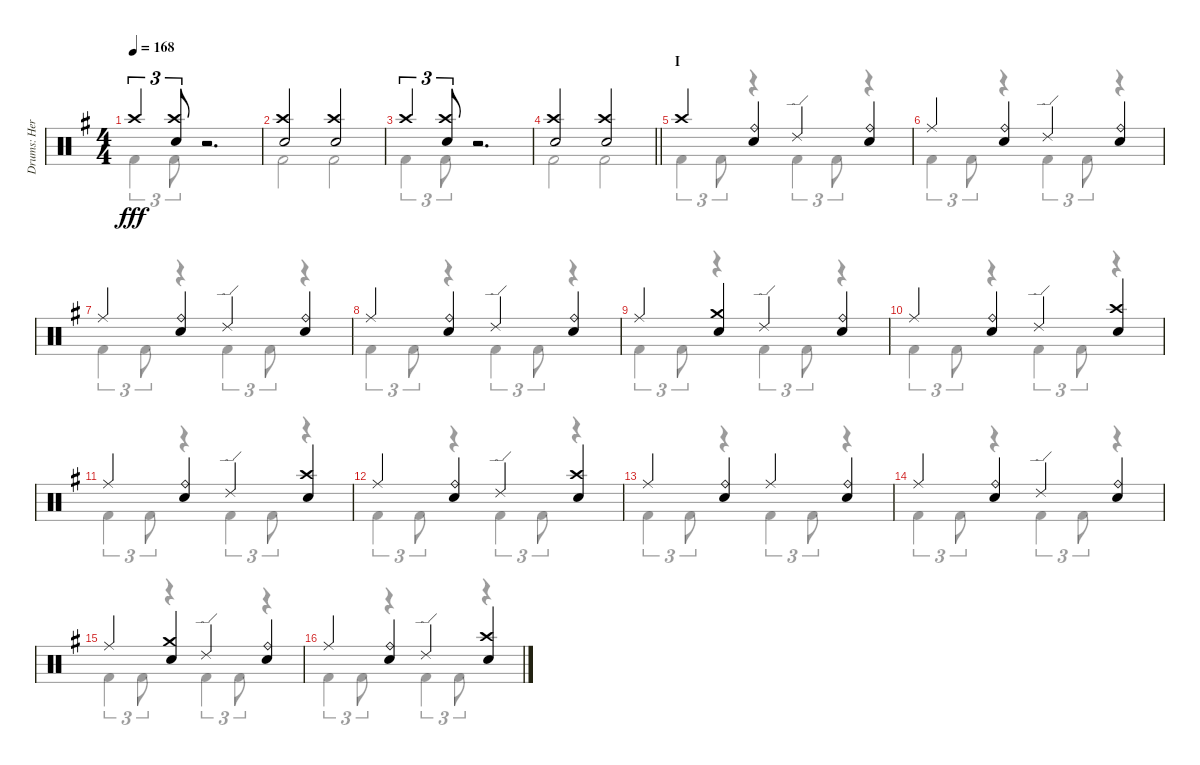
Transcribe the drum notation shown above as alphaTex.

\track ("Drums: Herman" "Drums: Her") {instrument percussion}
\staff {score}
\articulation defaults
\voice
\ts (4 4)
\tempo 168
\clef neutral
\ks g "Crash high (hit)".4{tu (3 2) dy fff}
("Crash high (hit)" "Snare (hit) 2").8{tu (3 2)} r.2{d} |
("Crash high (hit)" "Snare (hit) 2").2 ("Crash high (hit)" "Snare (hit) 2").2 |
"Crash high (hit)".4{tu (3 2)} ("Crash high (hit)" "Snare (hit) 2").8{tu (3 2)} r.2{d} |
\barLineRight lightlight
("Crash high (hit)" "Snare (hit) 2").2 ("Crash high (hit)" "Snare (hit) 2").2 |
\section ("" "I")
"Crash high (hit)".4 ("Ride (bell)" "Snare (hit) 2").4 "Ride (edge) 2".4 ("Ride (bell)" "Snare (hit) 2").4 |
"Ride (middle)".4 ("Ride (bell)" "Snare (hit) 2").4 "Ride (edge) 2".4 ("Ride (bell)" "Snare (hit) 2").4 |
"Ride (middle)".4 ("Ride (bell)" "Snare (hit) 2").4 "Ride (edge) 2".4 ("Ride (bell)" "Snare (hit) 2").4 |
"Ride (middle)".4 ("Ride (bell)" "Snare (hit) 2").4 "Ride (edge) 2".4 ("Ride (bell)" "Snare (hit) 2").4 |
"Ride (middle)".4 ("Crash medium (hit)" "Snare (hit) 2").4 "Ride (edge) 2".4 ("Ride (bell)" "Snare (hit) 2").4 |
"Ride (middle)".4 ("Ride (bell)" "Snare (hit) 2").4 "Ride (edge) 2".4 ("Crash high (hit)" "Snare (hit) 2").4 |
"Ride (middle)".4 ("Ride (bell)" "Snare (hit) 2").4 "Ride (edge) 2".4 ("Crash high (hit)" "Snare (hit) 2").4 |
"Ride (middle)".4 ("Ride (bell)" "Snare (hit) 2").4 "Ride (edge) 2".4 ("Crash high (hit)" "Snare (hit) 2").4 |
"Ride (middle)".4 ("Ride (bell)" "Snare (hit) 2").4 "Ride (middle)".4 ("Ride (bell)" "Snare (hit) 2").4 |
"Ride (middle)".4 ("Ride (bell)" "Snare (hit) 2").4 "Ride (edge) 2".4 ("Ride (bell)" "Snare (hit) 2").4 |
"Ride (middle)".4 ("Crash medium (hit)" "Snare (hit) 2").4 "Ride (edge) 2".4 ("Ride (bell)" "Snare (hit) 2").4 |
"Ride (middle)".4 ("Ride (bell)" "Snare (hit) 2").4 "Ride (edge) 2".4 ("Crash high (hit)" "Snare (hit) 2").4
\voice
\clef neutral
\ottava regular
\simile none
\ks g "Kick (hit) 2".4{tu (3 2) dy fff} "Kick (hit) 2".8{tu (3 2)}
r.2{d} |
"Kick (hit) 2".2 "Kick (hit) 2".2 |
"Kick (hit) 2".4{tu (3 2)} "Kick (hit) 2".8{tu (3 2)} r.2{d} |
\barLineRight lightlight "Kick (hit) 2".2 "Kick (hit) 2".2
|
"Kick (hit) 2".4{tu (3 2)} "Kick (hit) 2".8{tu (3 2)} r.4 "Kick (hit) 2".4{tu (3 2)} "Kick (hit) 2".8{tu (3 2)} r.4 |
"Kick (hit) 2".4{tu (3 2)} "Kick (hit) 2".8{tu (3 2)} r.4 "Kick (hit) 2".4{tu (3 2)} "Kick (hit) 2".8{tu (3 2)} r.4 |
"Kick (hit) 2".4{tu (3 2)} "Kick (hit) 2".8{tu (3 2)} r.4 "Kick (hit) 2".4{tu (3 2)} "Kick (hit) 2".8{tu (3 2)} r.4 |
"Kick (hit) 2".4{tu (3 2)} "Kick (hit) 2".8{tu (3 2)} r.4 "Kick (hit) 2".4{tu (3 2)} "Kick (hit) 2".8{tu (3 2)} r.4 |
"Kick (hit) 2".4{tu (3 2)} "Kick (hit) 2".8{tu (3 2)} r.4 "Kick (hit) 2".4{tu (3 2)} "Kick (hit) 2".8{tu (3 2)} r.4 |
"Kick (hit) 2".4{tu (3 2)} "Kick (hit) 2".8{tu (3 2)} r.4 "Kick (hit) 2".4{tu (3 2)} "Kick (hit) 2".8{tu (3 2)} r.4 |
"Kick (hit) 2".4{tu (3 2)} "Kick (hit) 2".8{tu (3 2)} r.4 "Kick (hit) 2".4{tu (3 2)} "Kick (hit) 2".8{tu (3 2)} r.4 |
"Kick (hit) 2".4{tu (3 2)} "Kick (hit) 2".8{tu (3 2)} r.4 "Kick (hit) 2".4{tu (3 2)} "Kick (hit) 2".8{tu (3 2)} r.4 |
"Kick (hit) 2".4{tu (3 2)} "Kick (hit) 2".8{tu (3 2)} r.4 "Kick (hit) 2".4{tu (3 2)} "Kick (hit) 2".8{tu (3 2)} r.4 |
"Kick (hit) 2".4{tu (3 2)} "Kick (hit) 2".8{tu (3 2)} r.4 "Kick (hit) 2".4{tu (3 2)} "Kick (hit) 2".8{tu (3 2)} r.4 |
"Kick (hit) 2".4{tu (3 2)} "Kick (hit) 2".8{tu (3 2)} r.4 "Kick (hit) 2".4{tu (3 2)} "Kick (hit) 2".8{tu (3 2)} r.4 |
"Kick (hit) 2".4{tu (3 2)} "Kick (hit) 2".8{tu (3 2)} r.4 "Kick (hit) 2".4{tu (3 2)} "Kick (hit) 2".8{tu (3 2)} r.4
